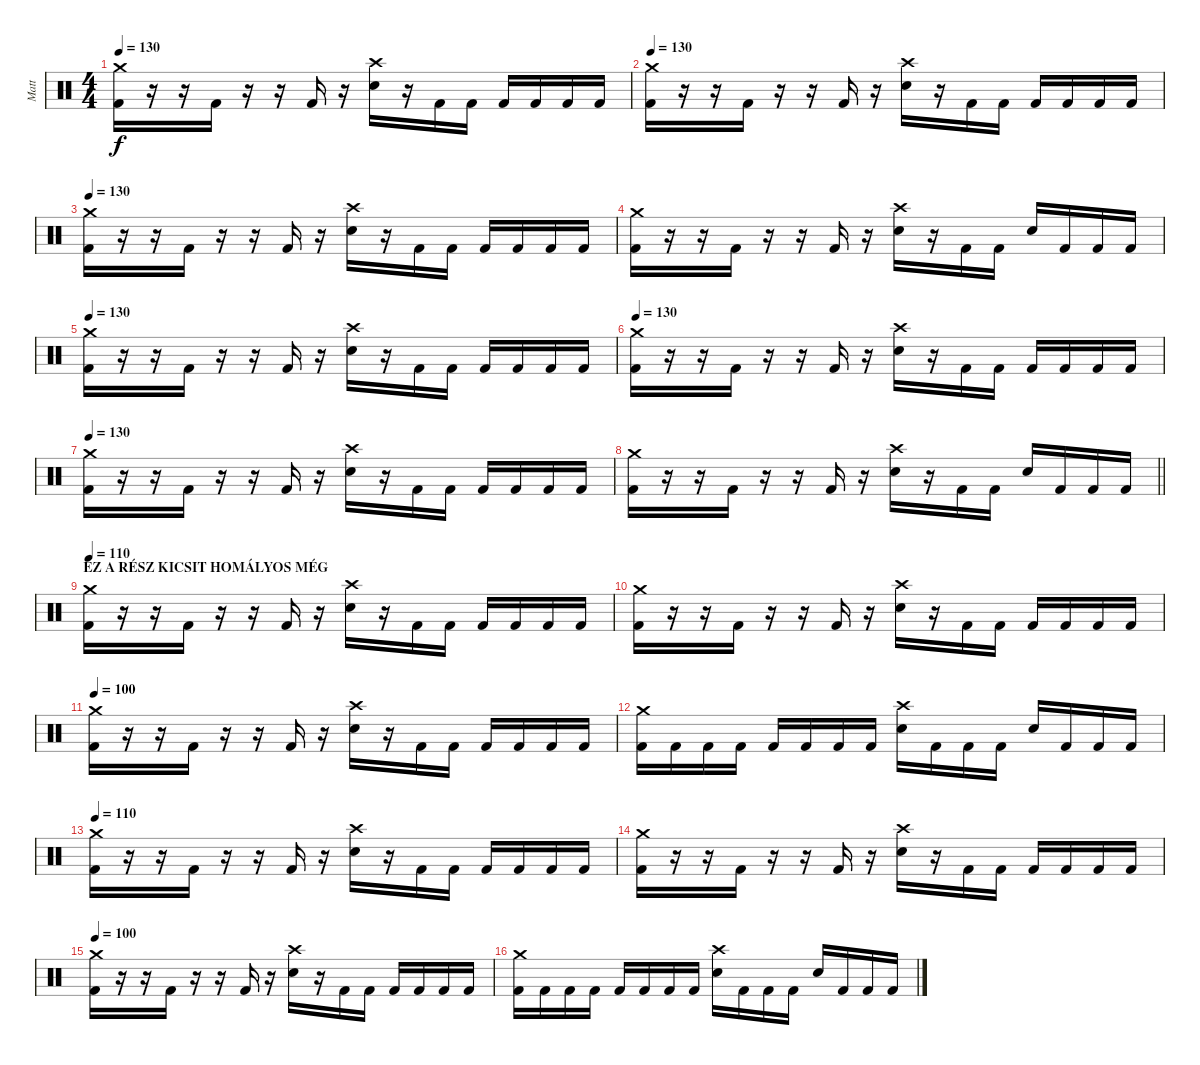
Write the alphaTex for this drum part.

\track ("Matt" "Matt") {instrument percussion}
\staff {score}
\articulation defaults
\ts (4 4)
\tempo 130
\clef neutral
\ks c
("Crash medium (hit)" "Kick (hit) 2").16{dy f} r.16 r.16 "Kick (hit) 2".16 r.16 r.16 "Kick (hit) 2".16 r.16 ("Crash high (hit)" "Snare (hit) 2").16 r.16 "Kick (hit) 2".16 "Kick (hit) 2".16 "Kick (hit) 2".16 "Kick (hit) 2".16 "Kick (hit) 2".16 "Kick (hit) 2".16 |
\tempo 130
("Crash medium (hit)" "Kick (hit) 2").16 r.16 r.16 "Kick (hit) 2".16 r.16 r.16 "Kick (hit) 2".16 r.16 ("Crash high (hit)" "Snare (hit) 2").16 r.16 "Kick (hit) 2".16 "Kick (hit) 2".16 "Kick (hit) 2".16 "Kick (hit) 2".16 "Kick (hit) 2".16 "Kick (hit) 2".16 |
\tempo 130
("Crash medium (hit)" "Kick (hit) 2").16 r.16 r.16 "Kick (hit) 2".16 r.16 r.16 "Kick (hit) 2".16 r.16 ("Crash high (hit)" "Snare (hit) 2").16 r.16 "Kick (hit) 2".16 "Kick (hit) 2".16 "Kick (hit) 2".16 "Kick (hit) 2".16 "Kick (hit) 2".16 "Kick (hit) 2".16 |
("Crash medium (hit)" "Kick (hit) 2").16 r.16 r.16 "Kick (hit) 2".16 r.16 r.16 "Kick (hit) 2".16 r.16 ("Crash high (hit)" "Snare (hit) 2").16 r.16 "Kick (hit) 2".16 "Kick (hit) 2".16 "Snare (hit) 2".16 "Kick (hit) 2".16 "Kick (hit) 2".16 "Kick (hit) 2".16 |
\tempo 130
("Crash medium (hit)" "Kick (hit) 2").16 r.16 r.16 "Kick (hit) 2".16 r.16 r.16 "Kick (hit) 2".16 r.16 ("Crash high (hit)" "Snare (hit) 2").16 r.16 "Kick (hit) 2".16 "Kick (hit) 2".16 "Kick (hit) 2".16 "Kick (hit) 2".16 "Kick (hit) 2".16 "Kick (hit) 2".16 |
\tempo 130
("Crash medium (hit)" "Kick (hit) 2").16 r.16 r.16 "Kick (hit) 2".16 r.16 r.16 "Kick (hit) 2".16 r.16 ("Crash high (hit)" "Snare (hit) 2").16 r.16 "Kick (hit) 2".16 "Kick (hit) 2".16 "Kick (hit) 2".16 "Kick (hit) 2".16 "Kick (hit) 2".16 "Kick (hit) 2".16 |
\tempo 130
("Crash medium (hit)" "Kick (hit) 2").16 r.16 r.16 "Kick (hit) 2".16 r.16 r.16 "Kick (hit) 2".16 r.16 ("Crash high (hit)" "Snare (hit) 2").16 r.16 "Kick (hit) 2".16 "Kick (hit) 2".16 "Kick (hit) 2".16 "Kick (hit) 2".16 "Kick (hit) 2".16 "Kick (hit) 2".16 |
\barLineRight lightlight
("Crash medium (hit)" "Kick (hit) 2").16 r.16 r.16 "Kick (hit) 2".16 r.16 r.16 "Kick (hit) 2".16 r.16 ("Crash high (hit)" "Snare (hit) 2").16 r.16 "Kick (hit) 2".16 "Kick (hit) 2".16 "Snare (hit) 2".16 "Kick (hit) 2".16 "Kick (hit) 2".16 "Kick (hit) 2".16 |
\section ("" "EZ A RÉSZ KICSIT HOMÁLYOS MÉG")
\tempo 100
\tempo 110
("Crash medium (hit)" "Kick (hit) 2").16 r.16 r.16 "Kick (hit) 2".16 r.16 r.16 "Kick (hit) 2".16 r.16 ("Crash high (hit)" "Snare (hit) 2").16 r.16 "Kick (hit) 2".16 "Kick (hit) 2".16 "Kick (hit) 2".16 "Kick (hit) 2".16 "Kick (hit) 2".16 "Kick (hit) 2".16 |
("Crash medium (hit)" "Kick (hit) 2").16 r.16 r.16 "Kick (hit) 2".16 r.16 r.16 "Kick (hit) 2".16 r.16 ("Crash high (hit)" "Snare (hit) 2").16 r.16 "Kick (hit) 2".16 "Kick (hit) 2".16 "Kick (hit) 2".16 "Kick (hit) 2".16 "Kick (hit) 2".16 "Kick (hit) 2".16 |
\tempo 100
("Crash medium (hit)" "Kick (hit) 2").16 r.16 r.16 "Kick (hit) 2".16 r.16 r.16 "Kick (hit) 2".16 r.16 ("Crash high (hit)" "Snare (hit) 2").16 r.16 "Kick (hit) 2".16 "Kick (hit) 2".16 "Kick (hit) 2".16 "Kick (hit) 2".16 "Kick (hit) 2".16 "Kick (hit) 2".16 |
("Crash medium (hit)" "Kick (hit) 2").16 "Kick (hit) 2".16 "Kick (hit) 2".16 "Kick (hit) 2".16 "Kick (hit) 2".16 "Kick (hit) 2".16 "Kick (hit) 2".16 "Kick (hit) 2".16 ("Crash high (hit)" "Snare (hit) 2").16 "Kick (hit) 2".16 "Kick (hit) 2".16 "Kick (hit) 2".16 "Snare (hit) 2".16 "Kick (hit) 2".16 "Kick (hit) 2".16 "Kick (hit) 2".16 |
\tempo 100
\tempo 110
("Crash medium (hit)" "Kick (hit) 2").16 r.16 r.16 "Kick (hit) 2".16 r.16 r.16 "Kick (hit) 2".16 r.16 ("Crash high (hit)" "Snare (hit) 2").16 r.16 "Kick (hit) 2".16 "Kick (hit) 2".16 "Kick (hit) 2".16 "Kick (hit) 2".16 "Kick (hit) 2".16 "Kick (hit) 2".16 |
("Crash medium (hit)" "Kick (hit) 2").16 r.16 r.16 "Kick (hit) 2".16 r.16 r.16 "Kick (hit) 2".16 r.16 ("Crash high (hit)" "Snare (hit) 2").16 r.16 "Kick (hit) 2".16 "Kick (hit) 2".16 "Kick (hit) 2".16 "Kick (hit) 2".16 "Kick (hit) 2".16 "Kick (hit) 2".16 |
\tempo 100
("Crash medium (hit)" "Kick (hit) 2").16 r.16 r.16 "Kick (hit) 2".16 r.16 r.16 "Kick (hit) 2".16 r.16 ("Crash high (hit)" "Snare (hit) 2").16 r.16 "Kick (hit) 2".16 "Kick (hit) 2".16 "Kick (hit) 2".16 "Kick (hit) 2".16 "Kick (hit) 2".16 "Kick (hit) 2".16 |
("Crash medium (hit)" "Kick (hit) 2").16 "Kick (hit) 2".16 "Kick (hit) 2".16 "Kick (hit) 2".16 "Kick (hit) 2".16 "Kick (hit) 2".16 "Kick (hit) 2".16 "Kick (hit) 2".16 ("Crash high (hit)" "Snare (hit) 2").16 "Kick (hit) 2".16 "Kick (hit) 2".16 "Kick (hit) 2".16 "Snare (hit) 2".16 "Kick (hit) 2".16 "Kick (hit) 2".16 "Kick (hit) 2".16
